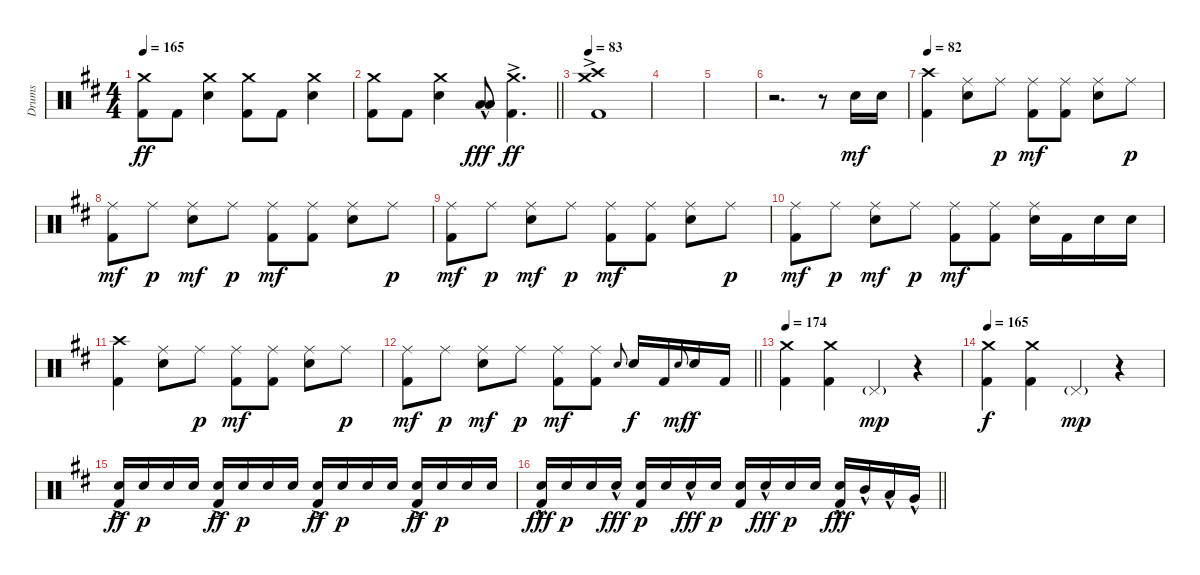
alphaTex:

\track ("Drums" "Drums") {instrument percussion}
\staff {score}
\articulation defaults
\ts (4 4)
\tempo 165
\clef neutral
\ks d
("Crash medium (hit)" "Kick (hit) 2").8{dy ff} "Kick (hit) 2".8 ("Crash medium (hit)" "Electric Snare (hit)").4 ("Crash medium (hit)" "Kick (hit) 2").8 "Kick (hit) 2".8 ("Crash medium (hit)" "Electric Snare (hit)").4 |
\barLineRight lightlight
("Crash medium (hit)" "Kick (hit) 2").8 "Kick (hit) 2".8 ("Crash medium (hit)" "Electric Snare (hit)").4 ("Low Tom (hit)"{hac} "Low Floor Tom (hit)"{hac}).8{dy fff} ("Crash medium (hit)"{ac} "Kick (hit) 2").4{d dy ff} |
\tempo 83
("Crash high (hit)"{ac} "Crash medium (hit)" "Kick (hit) 2").1 |
|
|
r.2{d} r.8 "Electric Snare (hit)".16{dy mf} "Electric Snare (hit)".16 |
\tempo 82
("Crash high (hit)" "Kick (hit) 2").4 ("Ride (middle)" "Electric Snare (hit)").8 "Ride (middle)".8{dy p} ("Ride (middle)" "Kick (hit) 2").8{dy mf} ("Ride (middle)" "Kick (hit) 2").8 ("Ride (middle)" "Electric Snare (hit)").8 "Ride (middle)".8{dy p} |
("Ride (middle)" "Kick (hit) 2").8{dy mf} "Ride (middle)".8{dy p} ("Ride (middle)" "Electric Snare (hit)").8{dy mf} "Ride (middle)".8{dy p} ("Ride (middle)" "Kick (hit) 2").8{dy mf} ("Ride (middle)" "Kick (hit) 2").8 ("Ride (middle)" "Electric Snare (hit)").8 "Ride (middle)".8{dy p} |
("Ride (middle)" "Kick (hit) 2").8{dy mf} "Ride (middle)".8{dy p} ("Ride (middle)" "Electric Snare (hit)").8{dy mf} "Ride (middle)".8{dy p} ("Ride (middle)" "Kick (hit) 2").8{dy mf} ("Ride (middle)" "Kick (hit) 2").8 ("Ride (middle)" "Electric Snare (hit)").8 "Ride (middle)".8{dy p} |
("Ride (middle)" "Kick (hit) 2").8{dy mf} "Ride (middle)".8{dy p} ("Ride (middle)" "Electric Snare (hit)").8{dy mf} "Ride (middle)".8{dy p} ("Ride (middle)" "Kick (hit) 2").8{dy mf} ("Ride (middle)" "Kick (hit) 2").8 ("Ride (middle)" "Electric Snare (hit)").16 "Kick (hit) 2".16 "Electric Snare (hit)".16 "Electric Snare (hit)".16 |
("Crash high (hit)" "Kick (hit) 2").4 ("Ride (middle)" "Electric Snare (hit)").8 "Ride (middle)".8{dy p} ("Ride (middle)" "Kick (hit) 2").8{dy mf} ("Ride (middle)" "Kick (hit) 2").8 ("Ride (middle)" "Electric Snare (hit)").8 "Ride (middle)".8{dy p} |
\barLineRight lightlight
("Ride (middle)" "Kick (hit) 2").8{dy mf} "Ride (middle)".8{dy p} ("Ride (middle)" "Electric Snare (hit)").8{dy mf} "Ride (middle)".8{dy p} ("Ride (middle)" "Kick (hit) 2").8{dy mf} ("Ride (middle)" "Kick (hit) 2").8 "Electric Snare (hit)".8{gr onbeat} "Electric Snare (hit)".16{dy f} "Kick (hit) 2".16 "Electric Snare (hit)".8{gr onbeat dy mf} "Electric Snare (hit)".16{dy f} "Kick (hit) 2".16 |
\tempo 174
("Crash medium (hit)" "Kick (hit) 2").4 ("Crash medium (hit)" "Kick (hit) 2").4 "Pedal Hi-Hat (hit)"{g}.4{dy mp} r.4 |
\tempo 165
("Crash medium (hit)" "Kick (hit) 2").4{dy f} ("Crash medium (hit)" "Kick (hit) 2").4 "Pedal Hi-Hat (hit)"{g}.4{dy mp} r.4 |
("Electric Snare (hit)"{ac} "Kick (hit) 2").16{dy ff volume 16} "Electric Snare (hit)".16{dy p} "Electric Snare (hit)".16 "Electric Snare (hit)".16 ("Electric Snare (hit)"{ac} "Kick (hit) 2").16{dy ff} "Electric Snare (hit)".16{dy p} "Electric Snare (hit)".16 "Electric Snare (hit)".16 ("Electric Snare (hit)"{ac} "Kick (hit) 2").16{dy ff} "Electric Snare (hit)".16{dy p} "Electric Snare (hit)".16 "Electric Snare (hit)".16 ("Electric Snare (hit)"{ac} "Kick (hit) 2").16{dy ff} "Electric Snare (hit)".16{dy p} "Electric Snare (hit)".16 "Electric Snare (hit)".16 |
\barLineRight lightlight
("Electric Snare (hit)"{hac} "Kick (hit) 2").16{dy fff} "Electric Snare (hit)".16{dy p} "Electric Snare (hit)".16 "Electric Snare (hit)"{hac}.16{dy fff} ("Electric Snare (hit)" "Kick (hit) 2").16{dy p} "Electric Snare (hit)".16 "Electric Snare (hit)"{hac}.16{dy fff} "Electric Snare (hit)".16{dy p} ("Electric Snare (hit)" "Kick (hit) 2").16 "Electric Snare (hit)"{hac}.16{dy fff} "Electric Snare (hit)".16{dy p} "Electric Snare (hit)".16 ("Electric Snare (hit)"{hac} "Kick (hit) 2").16{dy fff} "Mid Tom (hit)"{hac}.16 "Low Tom (hit)"{hac}.16 "Very Low Tom (hit)"{hac}.16
